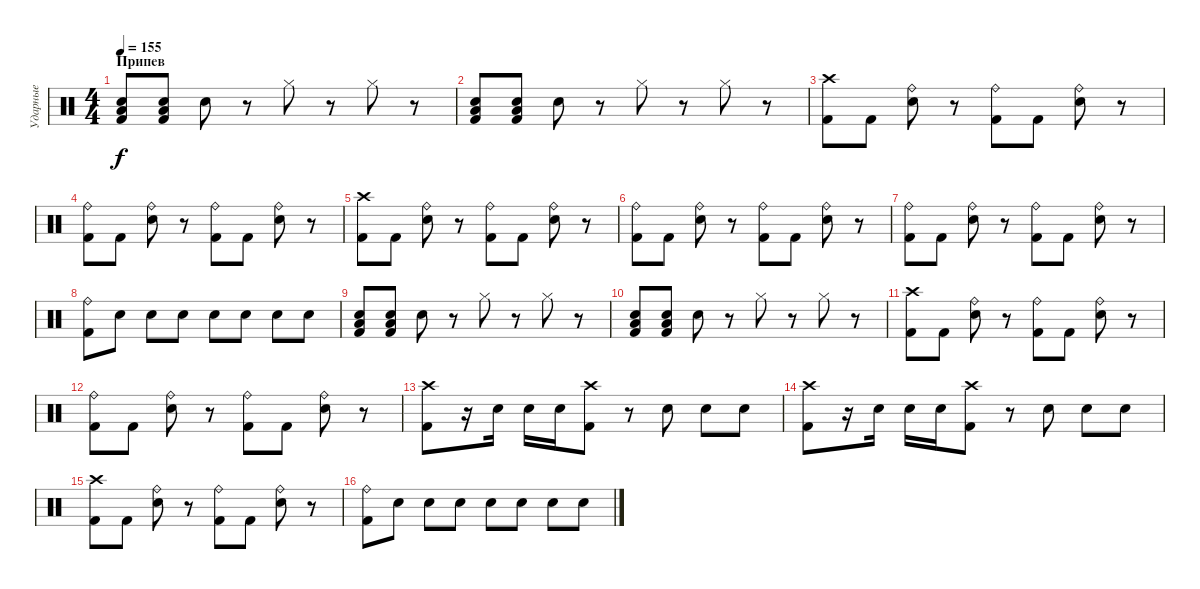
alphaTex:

\track ("Ударные" "Ударные") {instrument percussion}
\staff {score}
\articulation defaults
\ts (4 4)
\section ("" "Припев")
\tempo 155
\clef neutral
\ks c
("Snare (hit) 2" "Low Tom (hit)" "Kick (hit) 2").8{dy f} ("Snare (hit) 2" "Low Tom (hit)" "Kick (hit) 2").8 "Snare (hit) 2".8 r.8 "Hi-Hat (closed)".8 r.8 "Hi-Hat (closed)".8 r.8 |
("Snare (hit) 2" "Low Tom (hit)" "Kick (hit) 2").8 ("Snare (hit) 2" "Low Tom (hit)" "Kick (hit) 2").8 "Snare (hit) 2".8 r.8 "Hi-Hat (closed)".8 r.8 "Hi-Hat (closed)".8 r.8 |
("Crash high (hit)" "Kick (hit) 2").8 "Kick (hit) 2".8 ("Ride (bell)" "Snare (hit) 2").8 r.8 ("Ride (bell)" "Kick (hit) 2").8 "Kick (hit) 2".8 ("Ride (bell)" "Snare (hit) 2").8 r.8 |
("Ride (bell)" "Kick (hit) 2").8 "Kick (hit) 2".8 ("Ride (bell)" "Snare (hit) 2").8 r.8 ("Ride (bell)" "Kick (hit) 2").8 "Kick (hit) 2".8 ("Ride (bell)" "Snare (hit) 2").8 r.8 |
("Crash high (hit)" "Kick (hit) 2").8 "Kick (hit) 2".8 ("Ride (bell)" "Snare (hit) 2").8 r.8 ("Ride (bell)" "Kick (hit) 2").8 "Kick (hit) 2".8 ("Ride (bell)" "Snare (hit) 2").8 r.8 |
("Ride (bell)" "Kick (hit) 2").8 "Kick (hit) 2".8 ("Ride (bell)" "Snare (hit) 2").8 r.8 ("Ride (bell)" "Kick (hit) 2").8 "Kick (hit) 2".8 ("Ride (bell)" "Snare (hit) 2").8 r.8 |
("Ride (bell)" "Kick (hit) 2").8 "Kick (hit) 2".8 ("Ride (bell)" "Snare (hit) 2").8 r.8 ("Ride (bell)" "Kick (hit) 2").8 "Kick (hit) 2".8 ("Ride (bell)" "Snare (hit) 2").8 r.8 |
("Ride (bell)" "Kick (hit) 2").8 "Snare (hit) 2".8 "Snare (hit) 2".8 "Snare (hit) 2".8 "Snare (hit) 2".8 "Snare (hit) 2".8 "Snare (hit) 2".8 "Snare (hit) 2".8 |
("Snare (hit) 2" "Low Tom (hit)" "Kick (hit) 2").8 ("Snare (hit) 2" "Low Tom (hit)" "Kick (hit) 2").8 "Snare (hit) 2".8 r.8 "Hi-Hat (closed)".8 r.8 "Hi-Hat (closed)".8 r.8 |
("Snare (hit) 2" "Low Tom (hit)" "Kick (hit) 2").8 ("Snare (hit) 2" "Low Tom (hit)" "Kick (hit) 2").8 "Snare (hit) 2".8 r.8 "Hi-Hat (closed)".8 r.8 "Hi-Hat (closed)".8 r.8 |
("Crash high (hit)" "Kick (hit) 2").8 "Kick (hit) 2".8 ("Ride (bell)" "Snare (hit) 2").8 r.8 ("Ride (bell)" "Kick (hit) 2").8 "Kick (hit) 2".8 ("Ride (bell)" "Snare (hit) 2").8 r.8 |
("Ride (bell)" "Kick (hit) 2").8 "Kick (hit) 2".8 ("Ride (bell)" "Snare (hit) 2").8 r.8 ("Ride (bell)" "Kick (hit) 2").8 "Kick (hit) 2".8 ("Ride (bell)" "Snare (hit) 2").8 r.8 |
("Crash high (hit)" "Kick (hit) 2").8 r.16 "Snare (hit) 2".16 "Snare (hit) 2".16 "Snare (hit) 2".16 ("Crash high (hit)" "Kick (hit) 2").8 r.8 "Snare (hit) 2".8 "Snare (hit) 2".8 "Snare (hit) 2".8 |
("Crash high (hit)" "Kick (hit) 2").8 r.16 "Snare (hit) 2".16 "Snare (hit) 2".16 "Snare (hit) 2".16 ("Crash high (hit)" "Kick (hit) 2").8 r.8 "Snare (hit) 2".8 "Snare (hit) 2".8 "Snare (hit) 2".8 |
("Crash high (hit)" "Kick (hit) 2").8 "Kick (hit) 2".8 ("Ride (bell)" "Snare (hit) 2").8 r.8 ("Ride (bell)" "Kick (hit) 2").8 "Kick (hit) 2".8 ("Ride (bell)" "Snare (hit) 2").8 r.8 |
("Ride (bell)" "Kick (hit) 2").8 "Snare (hit) 2".8 "Snare (hit) 2".8 "Snare (hit) 2".8 "Snare (hit) 2".8 "Snare (hit) 2".8 "Snare (hit) 2".8 "Snare (hit) 2".8
